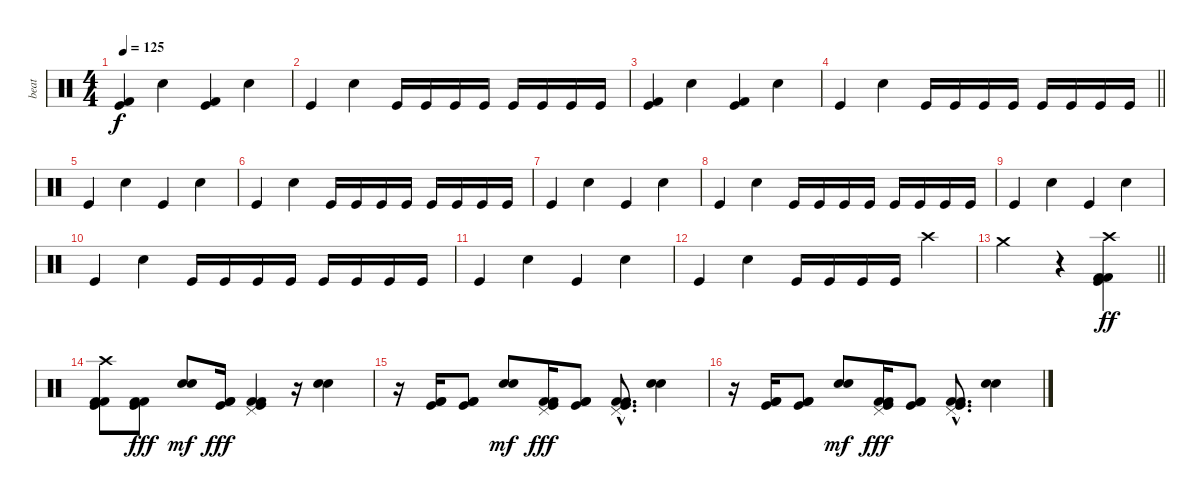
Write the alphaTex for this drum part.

\track ("beat" "beat") {instrument percussion}
\staff {score}
\articulation defaults
\ts (4 4)
\tempo 125
\clef neutral
\ks c
("Kick (hit)" "Kick (hit) 2").4{dy f} "Electric Snare (hit)".4 ("Kick (hit)" "Kick (hit) 2").4 "Electric Snare (hit)".4 |
"Kick (hit)".4 "Electric Snare (hit)".4 "Kick (hit)".16 "Kick (hit)".16 "Kick (hit)".16 "Kick (hit)".16 "Kick (hit)".16 "Kick (hit)".16 "Kick (hit)".16 "Kick (hit)".16 |
("Kick (hit)" "Kick (hit) 2").4 "Electric Snare (hit)".4 ("Kick (hit)" "Kick (hit) 2").4 "Electric Snare (hit)".4 |
\barLineRight lightlight "Kick (hit)".4 "Electric Snare (hit)".4 "Kick (hit)".16 "Kick (hit)".16 "Kick (hit)".16 "Kick (hit)".16 "Kick (hit)".16 "Kick (hit)".16 "Kick (hit)".16 "Kick (hit)".16
|
"Kick (hit)".4 "Electric Snare (hit)".4 "Kick (hit)".4 "Electric Snare (hit)".4 |
"Kick (hit)".4 "Electric Snare (hit)".4 "Kick (hit)".16 "Kick (hit)".16 "Kick (hit)".16 "Kick (hit)".16 "Kick (hit)".16 "Kick (hit)".16 "Kick (hit)".16 "Kick (hit)".16 |
"Kick (hit)".4 "Electric Snare (hit)".4 "Kick (hit)".4 "Electric Snare (hit)".4 |
"Kick (hit)".4 "Electric Snare (hit)".4 "Kick (hit)".16 "Kick (hit)".16 "Kick (hit)".16 "Kick (hit)".16 "Kick (hit)".16 "Kick (hit)".16 "Kick (hit)".16 "Kick (hit)".16 |
"Kick (hit)".4 "Electric Snare (hit)".4 "Kick (hit)".4 "Electric Snare (hit)".4 |
"Kick (hit)".4 "Electric Snare (hit)".4 "Kick (hit)".16 "Kick (hit)".16 "Kick (hit)".16 "Kick (hit)".16 "Kick (hit)".16 "Kick (hit)".16 "Kick (hit)".16 "Kick (hit)".16 |
"Kick (hit)".4 "Electric Snare (hit)".4 "Kick (hit)".4 "Electric Snare (hit)".4 |
"Kick (hit)".4 "Electric Snare (hit)".4 "Kick (hit)".16 "Kick (hit)".16 "Kick (hit)".16 "Kick (hit)".16 "Crash high (hit)".4 |
\barLineRight lightlight "Crash medium (hit)".2
r.4 ("Kick (hit)" "Kick (hit) 2" "Kick (hit) 2" "Crash high (hit)").4{dy ff} |
("Kick (hit)" "Kick (hit) 2" "Kick (hit) 2" "Crash high (hit)").8 ("Kick (hit)" "Kick (hit) 2" "Kick (hit) 2").8{dy fff} ("Snare (hit) 2" "Hand Clap (hit)").8{dy mf} ("Kick (hit)" "Kick (hit) 2" "Kick (hit) 2").16{dy fff} ("Kick (hit)" "Kick (hit) 2" "Kick (hit) 2" "Pedal Hi-Hat (hit)").4 r.16 ("Snare (hit) 2" "Electric Snare (hit)").4 |
r.16 ("Kick (hit)" "Kick (hit) 2" "Kick (hit) 2").16 ("Kick (hit)" "Kick (hit) 2" "Kick (hit) 2").8 ("Snare (hit) 2" "Hand Clap (hit)").8{dy mf} ("Kick (hit)" "Kick (hit) 2" "Kick (hit) 2" "Pedal Hi-Hat (hit)").16{dy fff} ("Kick (hit)" "Kick (hit) 2" "Kick (hit) 2").8 ("Kick (hit)"{hac} "Kick (hit) 2"{hac} "Kick (hit) 2"{hac} "Pedal Hi-Hat (hit)"{hac}).8{d} ("Snare (hit) 2" "Electric Snare (hit)").4 |
r.16 ("Kick (hit)" "Kick (hit) 2" "Kick (hit) 2").16 ("Kick (hit)" "Kick (hit) 2" "Kick (hit) 2").8 ("Snare (hit) 2" "Hand Clap (hit)").8{dy mf} ("Kick (hit)" "Kick (hit) 2" "Kick (hit) 2" "Pedal Hi-Hat (hit)").16{dy fff} ("Kick (hit)" "Kick (hit) 2" "Kick (hit) 2").8 ("Kick (hit)"{hac} "Kick (hit) 2"{hac} "Kick (hit) 2"{hac} "Pedal Hi-Hat (hit)"{hac}).8{d} ("Snare (hit) 2" "Electric Snare (hit)").4
